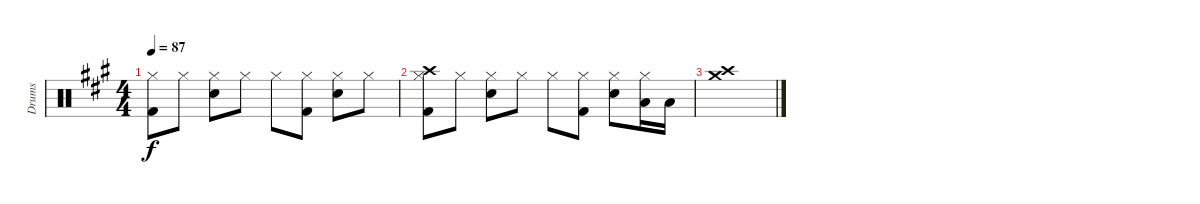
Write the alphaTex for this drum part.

\track ("Drums" "Drums") {instrument percussion}
\staff {score}
\articulation defaults
\ts (4 4)
\tempo 87
\clef neutral
\ks a
("Hi-Hat (closed)" "Kick (hit) 2").8{dy f} "Hi-Hat (closed)".8 ("Hi-Hat (closed)" "Electric Snare (hit)").8 "Hi-Hat (closed)".8 "Hi-Hat (closed)".8 ("Hi-Hat (closed)" "Kick (hit) 2").8 ("Hi-Hat (closed)" "Electric Snare (hit)").8 "Hi-Hat (closed)".8 |
("Crash high (hit)" "Hi-Hat (closed)" "Kick (hit) 2").8 "Hi-Hat (closed)".8 ("Hi-Hat (closed)" "Electric Snare (hit)").8 "Hi-Hat (closed)".8 "Hi-Hat (closed)".8 ("Hi-Hat (closed)" "Kick (hit) 2").8 ("Hi-Hat (closed)" "Electric Snare (hit)").8 ("Low Tom (hit)" "Hi-Hat (closed)").16 "Low Tom (hit)".16 |
("Crash high (hit)" "Crash medium (hit)").1
